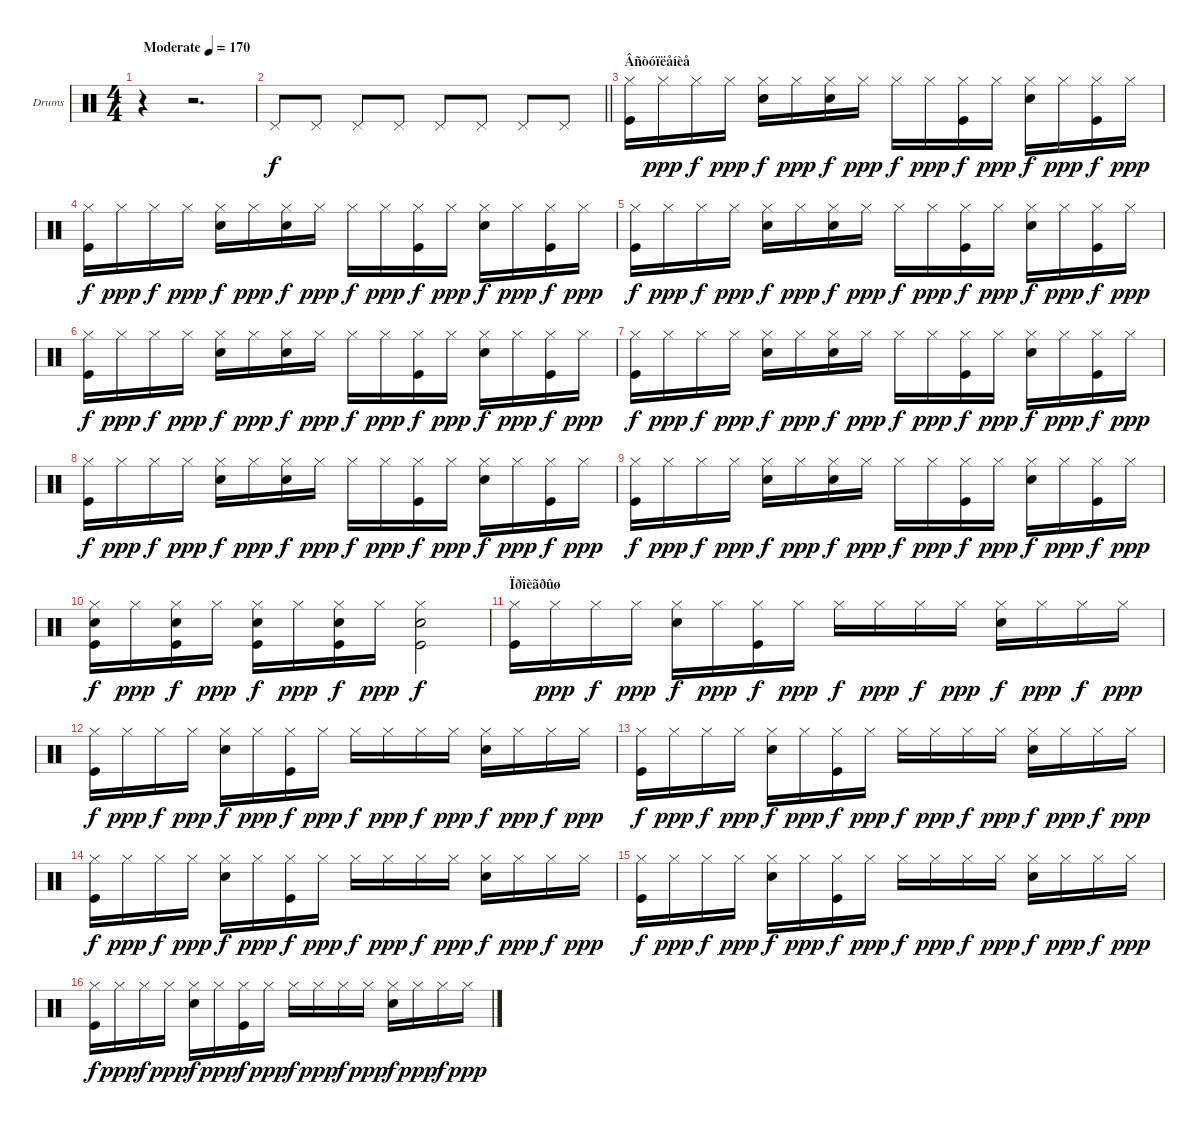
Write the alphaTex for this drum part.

\bracketExtendMode groupsimilarinstruments
\firstSystemTrackNameOrientation horizontal
\otherSystemsTrackNameOrientation horizontal
\track ("Drumkit" "Drums") {instrument percussion}
\staff {score}
\articulation defaults
\ts (4 4)
\beaming (8 2 2 2 2)
\tempo (170 "Moderate")
\clef neutral
\ks c
r.4{dy f} r.2{d} |
\barLineRight lightlight "Pedal Hi-Hat (hit)".8 "Pedal Hi-Hat (hit)".8 "Pedal Hi-Hat (hit)".8 "Pedal Hi-Hat (hit)".8 "Pedal Hi-Hat (hit)".8 "Pedal Hi-Hat (hit)".8 "Pedal Hi-Hat (hit)".8 "Pedal Hi-Hat (hit)".8
|
\section ("" "Âñòóïëåíèå")
("Hi-Hat (closed)" "Kick (hit)").16 "Hi-Hat (closed)".16{dy ppp} "Hi-Hat (closed)".16{dy f} "Hi-Hat (closed)".16{dy ppp} ("Hi-Hat (closed)" "Snare (hit) 2").16{dy f} "Hi-Hat (closed)".16{dy ppp} ("Hi-Hat (closed)" "Snare (hit) 2").16{dy f} "Hi-Hat (closed)".16{dy ppp} "Hi-Hat (closed)".16{dy f} "Hi-Hat (closed)".16{dy ppp} ("Hi-Hat (closed)" "Kick (hit)").16{dy f} "Hi-Hat (closed)".16{dy ppp} ("Hi-Hat (closed)" "Snare (hit) 2").16{dy f} "Hi-Hat (closed)".16{dy ppp} ("Hi-Hat (closed)" "Kick (hit)").16{dy f} "Hi-Hat (closed)".16{dy ppp} |
("Hi-Hat (closed)" "Kick (hit)").16{dy f} "Hi-Hat (closed)".16{dy ppp} "Hi-Hat (closed)".16{dy f} "Hi-Hat (closed)".16{dy ppp} ("Hi-Hat (closed)" "Snare (hit) 2").16{dy f} "Hi-Hat (closed)".16{dy ppp} ("Hi-Hat (closed)" "Snare (hit) 2").16{dy f} "Hi-Hat (closed)".16{dy ppp} "Hi-Hat (closed)".16{dy f} "Hi-Hat (closed)".16{dy ppp} ("Hi-Hat (closed)" "Kick (hit)").16{dy f} "Hi-Hat (closed)".16{dy ppp} ("Hi-Hat (closed)" "Snare (hit) 2").16{dy f} "Hi-Hat (closed)".16{dy ppp} ("Hi-Hat (closed)" "Kick (hit)").16{dy f} "Hi-Hat (closed)".16{dy ppp} |
("Hi-Hat (closed)" "Kick (hit)").16{dy f} "Hi-Hat (closed)".16{dy ppp} "Hi-Hat (closed)".16{dy f} "Hi-Hat (closed)".16{dy ppp} ("Hi-Hat (closed)" "Snare (hit) 2").16{dy f} "Hi-Hat (closed)".16{dy ppp} ("Hi-Hat (closed)" "Snare (hit) 2").16{dy f} "Hi-Hat (closed)".16{dy ppp} "Hi-Hat (closed)".16{dy f} "Hi-Hat (closed)".16{dy ppp} ("Hi-Hat (closed)" "Kick (hit)").16{dy f} "Hi-Hat (closed)".16{dy ppp} ("Hi-Hat (closed)" "Snare (hit) 2").16{dy f} "Hi-Hat (closed)".16{dy ppp} ("Hi-Hat (closed)" "Kick (hit)").16{dy f} "Hi-Hat (closed)".16{dy ppp} |
("Hi-Hat (closed)" "Kick (hit)").16{dy f} "Hi-Hat (closed)".16{dy ppp} "Hi-Hat (closed)".16{dy f} "Hi-Hat (closed)".16{dy ppp} ("Hi-Hat (closed)" "Snare (hit) 2").16{dy f} "Hi-Hat (closed)".16{dy ppp} ("Hi-Hat (closed)" "Snare (hit) 2").16{dy f} "Hi-Hat (closed)".16{dy ppp} "Hi-Hat (closed)".16{dy f} "Hi-Hat (closed)".16{dy ppp} ("Hi-Hat (closed)" "Kick (hit)").16{dy f} "Hi-Hat (closed)".16{dy ppp} ("Hi-Hat (closed)" "Snare (hit) 2").16{dy f} "Hi-Hat (closed)".16{dy ppp} ("Hi-Hat (closed)" "Kick (hit)").16{dy f} "Hi-Hat (closed)".16{dy ppp} |
("Hi-Hat (closed)" "Kick (hit)").16{dy f} "Hi-Hat (closed)".16{dy ppp} "Hi-Hat (closed)".16{dy f} "Hi-Hat (closed)".16{dy ppp} ("Hi-Hat (closed)" "Snare (hit) 2").16{dy f} "Hi-Hat (closed)".16{dy ppp} ("Hi-Hat (closed)" "Snare (hit) 2").16{dy f} "Hi-Hat (closed)".16{dy ppp} "Hi-Hat (closed)".16{dy f} "Hi-Hat (closed)".16{dy ppp} ("Hi-Hat (closed)" "Kick (hit)").16{dy f} "Hi-Hat (closed)".16{dy ppp} ("Hi-Hat (closed)" "Snare (hit) 2").16{dy f} "Hi-Hat (closed)".16{dy ppp} ("Hi-Hat (closed)" "Kick (hit)").16{dy f} "Hi-Hat (closed)".16{dy ppp} |
("Hi-Hat (closed)" "Kick (hit)").16{dy f} "Hi-Hat (closed)".16{dy ppp} "Hi-Hat (closed)".16{dy f} "Hi-Hat (closed)".16{dy ppp} ("Hi-Hat (closed)" "Snare (hit) 2").16{dy f} "Hi-Hat (closed)".16{dy ppp} ("Hi-Hat (closed)" "Snare (hit) 2").16{dy f} "Hi-Hat (closed)".16{dy ppp} "Hi-Hat (closed)".16{dy f} "Hi-Hat (closed)".16{dy ppp} ("Hi-Hat (closed)" "Kick (hit)").16{dy f} "Hi-Hat (closed)".16{dy ppp} ("Hi-Hat (closed)" "Snare (hit) 2").16{dy f} "Hi-Hat (closed)".16{dy ppp} ("Hi-Hat (closed)" "Kick (hit)").16{dy f} "Hi-Hat (closed)".16{dy ppp} |
("Hi-Hat (closed)" "Kick (hit)").16{dy f} "Hi-Hat (closed)".16{dy ppp} "Hi-Hat (closed)".16{dy f} "Hi-Hat (closed)".16{dy ppp} ("Hi-Hat (closed)" "Snare (hit) 2").16{dy f} "Hi-Hat (closed)".16{dy ppp} ("Hi-Hat (closed)" "Snare (hit) 2").16{dy f} "Hi-Hat (closed)".16{dy ppp} "Hi-Hat (closed)".16{dy f} "Hi-Hat (closed)".16{dy ppp} ("Hi-Hat (closed)" "Kick (hit)").16{dy f} "Hi-Hat (closed)".16{dy ppp} ("Hi-Hat (closed)" "Snare (hit) 2").16{dy f} "Hi-Hat (closed)".16{dy ppp} ("Hi-Hat (closed)" "Kick (hit)").16{dy f} "Hi-Hat (closed)".16{dy ppp} |
("Hi-Hat (closed)" "Snare (hit) 2" "Kick (hit)").16{dy f} "Hi-Hat (closed)".16{dy ppp} ("Hi-Hat (closed)" "Snare (hit) 2" "Kick (hit)").16{dy f} "Hi-Hat (closed)".16{dy ppp} ("Hi-Hat (closed)" "Kick (hit)" "Snare (hit) 2").16{dy f} "Hi-Hat (closed)".16{dy ppp} ("Hi-Hat (closed)" "Kick (hit)" "Snare (hit) 2").16{dy f} "Hi-Hat (closed)".16{dy ppp} ("Hi-Hat (closed)" "Snare (hit) 2" "Kick (hit)").2{dy f} |
\section ("" "Ïðîèãðûø")
("Hi-Hat (closed)" "Kick (hit)").16 "Hi-Hat (closed)".16{dy ppp} "Hi-Hat (closed)".16{dy f} "Hi-Hat (closed)".16{dy ppp} ("Hi-Hat (closed)" "Snare (hit) 2").16{dy f} "Hi-Hat (closed)".16{dy ppp} ("Hi-Hat (closed)" "Kick (hit)").16{dy f} "Hi-Hat (closed)".16{dy ppp} "Hi-Hat (closed)".16{dy f} "Hi-Hat (closed)".16{dy ppp} "Hi-Hat (closed)".16{dy f} "Hi-Hat (closed)".16{dy ppp} ("Hi-Hat (closed)" "Snare (hit) 2").16{dy f} "Hi-Hat (closed)".16{dy ppp} "Hi-Hat (closed)".16{dy f} "Hi-Hat (closed)".16{dy ppp} |
("Hi-Hat (closed)" "Kick (hit)").16{dy f} "Hi-Hat (closed)".16{dy ppp} "Hi-Hat (closed)".16{dy f} "Hi-Hat (closed)".16{dy ppp} ("Hi-Hat (closed)" "Snare (hit) 2").16{dy f} "Hi-Hat (closed)".16{dy ppp} ("Hi-Hat (closed)" "Kick (hit)").16{dy f} "Hi-Hat (closed)".16{dy ppp} "Hi-Hat (closed)".16{dy f} "Hi-Hat (closed)".16{dy ppp} "Hi-Hat (closed)".16{dy f} "Hi-Hat (closed)".16{dy ppp} ("Hi-Hat (closed)" "Snare (hit) 2").16{dy f} "Hi-Hat (closed)".16{dy ppp} "Hi-Hat (closed)".16{dy f} "Hi-Hat (closed)".16{dy ppp} |
("Hi-Hat (closed)" "Kick (hit)").16{dy f} "Hi-Hat (closed)".16{dy ppp} "Hi-Hat (closed)".16{dy f} "Hi-Hat (closed)".16{dy ppp} ("Hi-Hat (closed)" "Snare (hit) 2").16{dy f} "Hi-Hat (closed)".16{dy ppp} ("Hi-Hat (closed)" "Kick (hit)").16{dy f} "Hi-Hat (closed)".16{dy ppp} "Hi-Hat (closed)".16{dy f} "Hi-Hat (closed)".16{dy ppp} "Hi-Hat (closed)".16{dy f} "Hi-Hat (closed)".16{dy ppp} ("Hi-Hat (closed)" "Snare (hit) 2").16{dy f} "Hi-Hat (closed)".16{dy ppp} "Hi-Hat (closed)".16{dy f} "Hi-Hat (closed)".16{dy ppp} |
("Hi-Hat (closed)" "Kick (hit)").16{dy f} "Hi-Hat (closed)".16{dy ppp} "Hi-Hat (closed)".16{dy f} "Hi-Hat (closed)".16{dy ppp} ("Hi-Hat (closed)" "Snare (hit) 2").16{dy f} "Hi-Hat (closed)".16{dy ppp} ("Hi-Hat (closed)" "Kick (hit)").16{dy f} "Hi-Hat (closed)".16{dy ppp} "Hi-Hat (closed)".16{dy f} "Hi-Hat (closed)".16{dy ppp} "Hi-Hat (closed)".16{dy f} "Hi-Hat (closed)".16{dy ppp} ("Hi-Hat (closed)" "Snare (hit) 2").16{dy f} "Hi-Hat (closed)".16{dy ppp} "Hi-Hat (closed)".16{dy f} "Hi-Hat (closed)".16{dy ppp} |
("Hi-Hat (closed)" "Kick (hit)").16{dy f} "Hi-Hat (closed)".16{dy ppp} "Hi-Hat (closed)".16{dy f} "Hi-Hat (closed)".16{dy ppp} ("Hi-Hat (closed)" "Snare (hit) 2").16{dy f} "Hi-Hat (closed)".16{dy ppp} ("Hi-Hat (closed)" "Kick (hit)").16{dy f} "Hi-Hat (closed)".16{dy ppp} "Hi-Hat (closed)".16{dy f} "Hi-Hat (closed)".16{dy ppp} "Hi-Hat (closed)".16{dy f} "Hi-Hat (closed)".16{dy ppp} ("Hi-Hat (closed)" "Snare (hit) 2").16{dy f} "Hi-Hat (closed)".16{dy ppp} "Hi-Hat (closed)".16{dy f} "Hi-Hat (closed)".16{dy ppp} |
("Hi-Hat (closed)" "Kick (hit)").16{dy f} "Hi-Hat (closed)".16{dy ppp} "Hi-Hat (closed)".16{dy f} "Hi-Hat (closed)".16{dy ppp} ("Hi-Hat (closed)" "Snare (hit) 2").16{dy f} "Hi-Hat (closed)".16{dy ppp} ("Hi-Hat (closed)" "Kick (hit)").16{dy f} "Hi-Hat (closed)".16{dy ppp} "Hi-Hat (closed)".16{dy f} "Hi-Hat (closed)".16{dy ppp} "Hi-Hat (closed)".16{dy f} "Hi-Hat (closed)".16{dy ppp} ("Hi-Hat (closed)" "Snare (hit) 2").16{dy f} "Hi-Hat (closed)".16{dy ppp} "Hi-Hat (closed)".16{dy f} "Hi-Hat (closed)".16{dy ppp}
